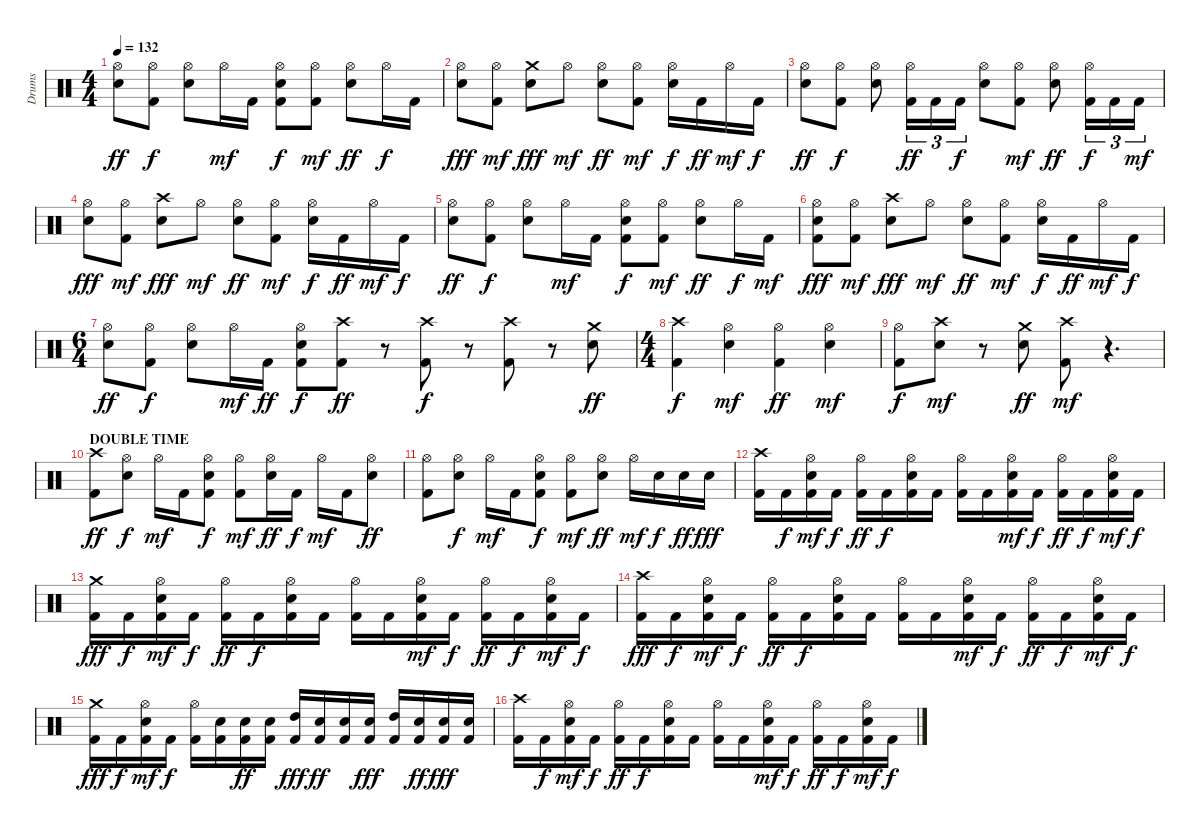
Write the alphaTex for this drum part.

\track ("Drums" "Drums") {instrument percussion}
\staff {score}
\articulation defaults
\ts (4 4)
\tempo 132
\clef neutral
\ks c
("Hi-Hat (open)" "Electric Snare (hit)").8{dy ff} ("Hi-Hat (open)" "Kick (hit) 2").8{dy f} ("Hi-Hat (open)" "Electric Snare (hit)").8 "Hi-Hat (open)".16{dy mf} "Kick (hit) 2".16 ("Hi-Hat (open)" "Electric Snare (hit)" "Kick (hit) 2").8{dy f} ("Hi-Hat (open)" "Kick (hit) 2").8{dy mf} ("Hi-Hat (open)" "Electric Snare (hit)").8{dy ff} "Hi-Hat (open)".16{dy f} "Kick (hit) 2".16 |
("Hi-Hat (open)" "Electric Snare (hit)").8{dy fff} ("Hi-Hat (open)" "Kick (hit) 2").8{dy mf} ("Crash medium (hit)" "Electric Snare (hit)").8{dy fff} "Hi-Hat (open)".8{dy mf} ("Hi-Hat (open)" "Electric Snare (hit)").8{dy ff} ("Hi-Hat (open)" "Kick (hit) 2").8{dy mf} ("Hi-Hat (open)" "Electric Snare (hit)").16{dy f} "Kick (hit) 2".16{dy ff} "Hi-Hat (open)".16{dy mf} "Kick (hit) 2".16{dy f} |
("Hi-Hat (open)" "Electric Snare (hit)").8{dy ff} ("Hi-Hat (open)" "Kick (hit) 2").8{dy f} ("Hi-Hat (open)" "Electric Snare (hit)").8 ("Hi-Hat (open)" "Kick (hit) 2").16{tu (3 2) dy ff} "Kick (hit) 2".16{tu (3 2)} "Kick (hit) 2".16{tu (3 2) dy f} ("Hi-Hat (open)" "Electric Snare (hit)").8 ("Hi-Hat (open)" "Kick (hit) 2").8{dy mf} ("Hi-Hat (open)" "Electric Snare (hit)").8{dy ff} ("Hi-Hat (open)" "Kick (hit) 2").16{tu (3 2) dy f} "Kick (hit) 2".16{tu (3 2)} "Kick (hit) 2".16{tu (3 2) dy mf} |
("Hi-Hat (open)" "Electric Snare (hit)").8{dy fff} ("Hi-Hat (open)" "Kick (hit) 2").8{dy mf} ("Crash high (hit)" "Electric Snare (hit)").8{dy fff} "Hi-Hat (open)".8{dy mf} ("Hi-Hat (open)" "Electric Snare (hit)").8{dy ff} ("Hi-Hat (open)" "Kick (hit) 2").8{dy mf} ("Hi-Hat (open)" "Electric Snare (hit)").16{dy f} "Kick (hit) 2".16{dy ff} "Hi-Hat (open)".16{dy mf} "Kick (hit) 2".16{dy f} |
("Hi-Hat (open)" "Electric Snare (hit)").8{dy ff} ("Hi-Hat (open)" "Kick (hit) 2").8{dy f} ("Hi-Hat (open)" "Electric Snare (hit)").8 "Hi-Hat (open)".16{dy mf} "Kick (hit) 2".16 ("Hi-Hat (open)" "Electric Snare (hit)" "Kick (hit) 2").8{dy f} ("Hi-Hat (open)" "Kick (hit) 2").8{dy mf} ("Hi-Hat (open)" "Electric Snare (hit)").8{dy ff} "Hi-Hat (open)".16{dy f} "Kick (hit) 2".16{dy mf} |
("Hi-Hat (open)" "Electric Snare (hit)" "Kick (hit) 2").8{dy fff} ("Hi-Hat (open)" "Kick (hit) 2").8{dy mf} ("Crash high (hit)" "Electric Snare (hit)").8{dy fff} "Hi-Hat (open)".8{dy mf} ("Hi-Hat (open)" "Electric Snare (hit)").8{dy ff} ("Hi-Hat (open)" "Kick (hit) 2").8{dy mf} ("Hi-Hat (open)" "Electric Snare (hit)").16{dy f} "Kick (hit) 2".16{dy ff} "Hi-Hat (open)".16{dy mf} "Kick (hit) 2".16{dy f} |
\ts (6 4)
("Hi-Hat (open)" "Electric Snare (hit)").8{dy ff} ("Hi-Hat (open)" "Kick (hit) 2").8{dy f} ("Hi-Hat (open)" "Electric Snare (hit)").8 "Hi-Hat (open)".16{dy mf} "Kick (hit) 2".16{dy ff} ("Hi-Hat (open)" "Electric Snare (hit)" "Kick (hit) 2").8{dy f} ("Crash high (hit)" "Kick (hit) 2").8{dy ff} r.8{volume 0} ("Crash high (hit)" "Kick (hit) 2").8{dy f volume 14} r.8{volume 0} ("Crash high (hit)" "Kick (hit) 2").8{volume 14} r.8{volume 0} ("Crash medium (hit)" "Electric Snare (hit)").8{dy ff volume 14} |
\ts (4 4)
("Crash high (hit)" "Kick (hit) 2").4{dy f} ("Hi-Hat (open)" "Electric Snare (hit)").4{dy mf} ("Hi-Hat (open)" "Kick (hit) 2").4{dy ff} ("Hi-Hat (open)" "Electric Snare (hit)").4{dy mf} |
("Hi-Hat (open)" "Kick (hit) 2").8{dy f} ("Crash high (hit)" "Electric Snare (hit)").8{dy mf} r.8 ("Crash medium (hit)" "Electric Snare (hit)").8{dy ff} ("Crash high (hit)" "Kick (hit) 2").8{dy mf} r.4{d volume 0} |
\section ("" "DOUBLE TIME")
("Crash high (hit)" "Kick (hit) 2").8{dy ff volume 14} ("Hi-Hat (open)" "Electric Snare (hit)").8{dy f} "Hi-Hat (open)".16{dy mf} "Kick (hit) 2".16 ("Hi-Hat (open)" "Electric Snare (hit)" "Kick (hit) 2").8{dy f} ("Hi-Hat (open)" "Kick (hit) 2").8{dy mf} ("Hi-Hat (open)" "Electric Snare (hit)").16{dy ff} "Kick (hit) 2".16{dy f} "Hi-Hat (open)".16{dy mf} "Kick (hit) 2".16 ("Hi-Hat (open)" "Electric Snare (hit)").8{dy ff} |
("Hi-Hat (open)" "Kick (hit) 2").8 ("Hi-Hat (open)" "Electric Snare (hit)").8{dy f} "Hi-Hat (open)".16{dy mf} "Kick (hit) 2".16 ("Hi-Hat (open)" "Electric Snare (hit)" "Kick (hit) 2").8{dy f} ("Hi-Hat (open)" "Kick (hit) 2").8{dy mf} ("Hi-Hat (open)" "Electric Snare (hit)").8{dy ff} "Hi-Hat (open)".16{dy mf} "Electric Snare (hit)".16{dy f} "Electric Snare (hit)".16{dy ff} "Electric Snare (hit)".16{dy fff} |
("Crash high (hit)" "Kick (hit) 2").16 "Kick (hit) 2".16{dy f} ("Hi-Hat (open)" "Electric Snare (hit)" "Kick (hit) 2").16{dy mf} "Kick (hit) 2".16{dy f} ("Hi-Hat (open)" "Kick (hit) 2").16{dy ff} "Kick (hit) 2".16{dy f} ("Hi-Hat (open)" "Electric Snare (hit)" "Kick (hit) 2").16 "Kick (hit) 2".16 ("Hi-Hat (open)" "Kick (hit) 2").16 "Kick (hit) 2".16 ("Hi-Hat (open)" "Electric Snare (hit)" "Kick (hit) 2").16{dy mf} "Kick (hit) 2".16{dy f} ("Hi-Hat (open)" "Kick (hit) 2").16{dy ff} "Kick (hit) 2".16{dy f} ("Hi-Hat (open)" "Electric Snare (hit)" "Kick (hit) 2").16{dy mf} "Kick (hit) 2".16{dy f} |
("Crash medium (hit)" "Kick (hit) 2").16{dy fff} "Kick (hit) 2".16{dy f} ("Hi-Hat (open)" "Electric Snare (hit)" "Kick (hit) 2").16{dy mf} "Kick (hit) 2".16{dy f} ("Hi-Hat (open)" "Kick (hit) 2").16{dy ff} "Kick (hit) 2".16{dy f} ("Hi-Hat (open)" "Electric Snare (hit)" "Kick (hit) 2").16 "Kick (hit) 2".16 ("Hi-Hat (open)" "Kick (hit) 2").16 "Kick (hit) 2".16 ("Hi-Hat (open)" "Electric Snare (hit)" "Kick (hit) 2").16{dy mf} "Kick (hit) 2".16{dy f} ("Hi-Hat (open)" "Kick (hit) 2").16{dy ff} "Kick (hit) 2".16{dy f} ("Hi-Hat (open)" "Electric Snare (hit)" "Kick (hit) 2").16{dy mf} "Kick (hit) 2".16{dy f} |
("Crash high (hit)" "Kick (hit) 2").16{dy fff} "Kick (hit) 2".16{dy f} ("Hi-Hat (open)" "Electric Snare (hit)" "Kick (hit) 2").16{dy mf} "Kick (hit) 2".16{dy f} ("Hi-Hat (open)" "Kick (hit) 2").16{dy ff} "Kick (hit) 2".16{dy f} ("Hi-Hat (open)" "Electric Snare (hit)" "Kick (hit) 2").16 "Kick (hit) 2".16 ("Hi-Hat (open)" "Kick (hit) 2").16 "Kick (hit) 2".16 ("Hi-Hat (open)" "Electric Snare (hit)" "Kick (hit) 2").16{dy mf} "Kick (hit) 2".16{dy f} ("Hi-Hat (open)" "Kick (hit) 2").16{dy ff} "Kick (hit) 2".16{dy f} ("Hi-Hat (open)" "Electric Snare (hit)" "Kick (hit) 2").16{dy mf} "Kick (hit) 2".16{dy f} |
("Crash medium (hit)" "Kick (hit) 2").16{dy fff} "Kick (hit) 2".16{dy f} ("Hi-Hat (open)" "Electric Snare (hit)" "Kick (hit) 2").16{dy mf} "Kick (hit) 2".16{dy f} ("Hi-Hat (open)" "Kick (hit) 2").16 ("Electric Snare (hit)" "Kick (hit) 2").16 ("Electric Snare (hit)" "Kick (hit) 2").16{dy ff} ("Electric Snare (hit)" "Kick (hit) 2").16 ("High Tom (hit)" "Kick (hit) 2").16{dy fff} ("Electric Snare (hit)" "Kick (hit) 2").16{dy ff} ("Electric Snare (hit)" "Kick (hit) 2").16 ("Electric Snare (hit)" "Kick (hit) 2").16{dy fff} ("High Tom (hit)" "Kick (hit) 2").16 ("Electric Snare (hit)" "Kick (hit) 2").16{dy ff} ("Electric Snare (hit)" "Kick (hit) 2").16{dy fff} ("Electric Snare (hit)" "Kick (hit) 2").16 |
("Crash high (hit)" "Kick (hit) 2").16 "Kick (hit) 2".16{dy f} ("Hi-Hat (open)" "Electric Snare (hit)" "Kick (hit) 2").16{dy mf} "Kick (hit) 2".16{dy f} ("Hi-Hat (open)" "Kick (hit) 2").16{dy ff} "Kick (hit) 2".16{dy f} ("Hi-Hat (open)" "Electric Snare (hit)" "Kick (hit) 2").16 "Kick (hit) 2".16 ("Hi-Hat (open)" "Kick (hit) 2").16 "Kick (hit) 2".16 ("Hi-Hat (open)" "Electric Snare (hit)" "Kick (hit) 2").16{dy mf} "Kick (hit) 2".16{dy f} ("Hi-Hat (open)" "Kick (hit) 2").16{dy ff} "Kick (hit) 2".16{dy f} ("Hi-Hat (open)" "Electric Snare (hit)" "Kick (hit) 2").16{dy mf} "Kick (hit) 2".16{dy f}
